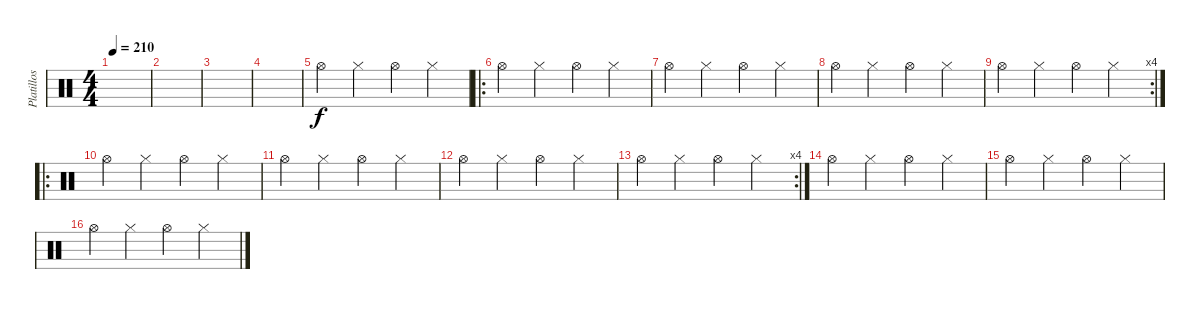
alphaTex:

\track ("Platillos (Leo)" "Platillos ") {instrument percussion}
\staff {score}
\articulation defaults
\ts (4 4)
\tempo 210
\clef neutral
\ks c
|
|
|
|
"Hi-Hat (open)".4 "Hi-Hat (closed)".4 "Hi-Hat (open)".4 "Hi-Hat (closed)".4 |
\ro "Hi-Hat (open)".4 "Hi-Hat (closed)".4 "Hi-Hat (open)".4 "Hi-Hat (closed)".4
|
"Hi-Hat (open)".4 "Hi-Hat (closed)".4 "Hi-Hat (open)".4 "Hi-Hat (closed)".4 |
"Hi-Hat (open)".4 "Hi-Hat (closed)".4 "Hi-Hat (open)".4 "Hi-Hat (closed)".4 |
\rc 4 "Hi-Hat (open)".4 "Hi-Hat (closed)".4 "Hi-Hat (open)".4 "Hi-Hat (closed)".4
|
\ro "Hi-Hat (open)".4 "Hi-Hat (closed)".4 "Hi-Hat (open)".4 "Hi-Hat (closed)".4
|
"Hi-Hat (open)".4 "Hi-Hat (closed)".4 "Hi-Hat (open)".4 "Hi-Hat (closed)".4 |
"Hi-Hat (open)".4 "Hi-Hat (closed)".4 "Hi-Hat (open)".4 "Hi-Hat (closed)".4 |
\rc 4 "Hi-Hat (open)".4 "Hi-Hat (closed)".4 "Hi-Hat (open)".4 "Hi-Hat (closed)".4
|
"Hi-Hat (open)".4 "Hi-Hat (closed)".4 "Hi-Hat (open)".4 "Hi-Hat (closed)".4 |
"Hi-Hat (open)".4 "Hi-Hat (closed)".4 "Hi-Hat (open)".4 "Hi-Hat (closed)".4 |
"Hi-Hat (open)".4 "Hi-Hat (closed)".4 "Hi-Hat (open)".4 "Hi-Hat (closed)".4
